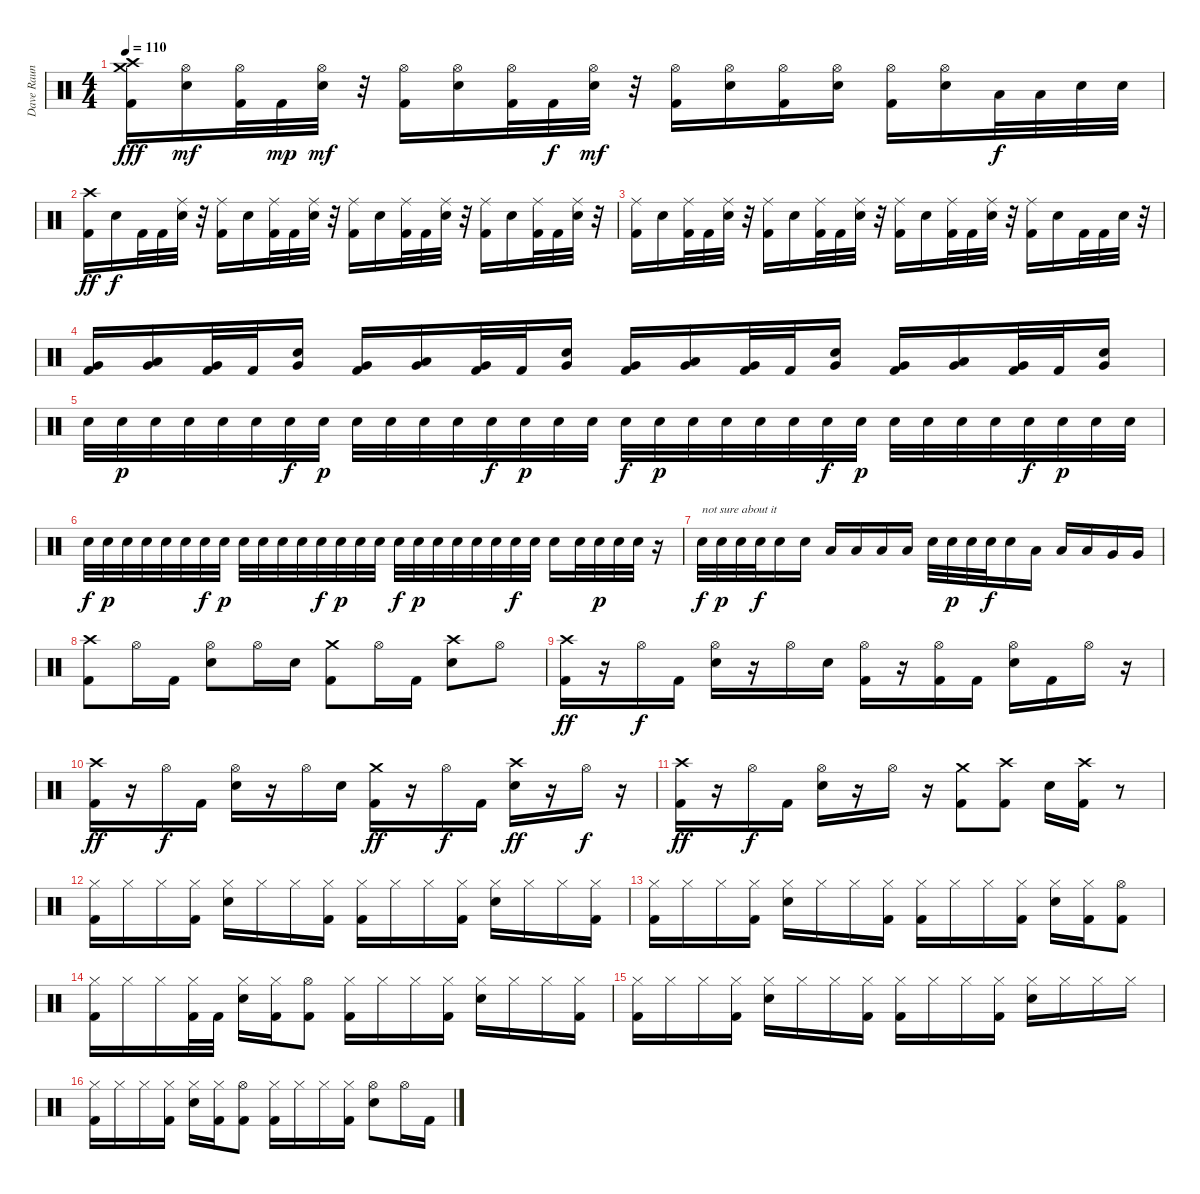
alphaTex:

\track ("Dave Raun" "Dave Raun") {instrument percussion}
\staff {score}
\articulation defaults
\ts (4 4)
\tempo 110
\clef neutral
\ks c
("Kick (hit) 2" "Crash high (hit)" "Crash medium (hit)").16{dy fff} ("Electric Snare (hit)" "Hi-Hat (open)").16{dy mf} ("Kick (hit) 2" "Hi-Hat (open)").32 "Kick (hit) 2".32{dy mp} ("Electric Snare (hit)" "Hi-Hat (open)").32{dy mf} r.32 ("Kick (hit) 2" "Hi-Hat (open)").16 ("Electric Snare (hit)" "Hi-Hat (open)").16 ("Kick (hit) 2" "Hi-Hat (open)").32 "Kick (hit) 2".32{dy f} ("Electric Snare (hit)" "Hi-Hat (open)").32{dy mf} r.32 ("Kick (hit) 2" "Hi-Hat (open)").16 ("Electric Snare (hit)" "Hi-Hat (open)").16 ("Kick (hit) 2" "Hi-Hat (open)").16 ("Electric Snare (hit)" "Hi-Hat (open)").16 ("Kick (hit) 2" "Hi-Hat (open)").16 ("Electric Snare (hit)" "Hi-Hat (open)").16 "Low Tom (hit)".32{dy f} "Low Tom (hit)".32 "Electric Snare (hit)".32 "Electric Snare (hit)".32 |
("Kick (hit) 2" "Crash high (hit)").16{dy ff} "Electric Snare (hit)".16{dy f} "Kick (hit) 2".32 "Kick (hit) 2".32 ("Electric Snare (hit)" "Ride (middle)").32 r.32 ("Kick (hit) 2" "Ride (middle)").16 "Electric Snare (hit)".16 ("Kick (hit) 2" "Ride (middle)").32 "Kick (hit) 2".32 ("Electric Snare (hit)" "Ride (middle)").32 r.32 ("Kick (hit) 2" "Ride (middle)").16 "Electric Snare (hit)".16 ("Kick (hit) 2" "Ride (middle)").32 "Kick (hit) 2".32 ("Electric Snare (hit)" "Ride (middle)").32 r.32 ("Kick (hit) 2" "Ride (middle)").16 "Electric Snare (hit)".16 ("Kick (hit) 2" "Ride (middle)").32 "Kick (hit) 2".32 ("Electric Snare (hit)" "Ride (middle)").32 r.32 |
("Kick (hit) 2" "Ride (middle)").16 "Electric Snare (hit)".16 ("Kick (hit) 2" "Ride (middle)").32 "Kick (hit) 2".32 ("Electric Snare (hit)" "Ride (middle)").32 r.32 ("Kick (hit) 2" "Ride (middle)").16 "Electric Snare (hit)".16 ("Kick (hit) 2" "Ride (middle)").32 "Kick (hit) 2".32 ("Electric Snare (hit)" "Ride (middle)").32 r.32 ("Kick (hit) 2" "Ride (middle)").16 "Electric Snare (hit)".16 ("Kick (hit) 2" "Ride (middle)").32 "Kick (hit) 2".32 ("Electric Snare (hit)" "Ride (middle)").32 r.32 ("Kick (hit) 2" "Ride (middle)").16 "Electric Snare (hit)".16 "Kick (hit) 2".32 "Kick (hit) 2".32 "Electric Snare (hit)".32 r.32 |
("Very Low Tom (hit)" "Kick (hit) 2").16 ("Very Low Tom (hit)" "Low Tom (hit)").16 ("Very Low Tom (hit)" "Kick (hit) 2").32 "Kick (hit) 2".32 ("Very Low Tom (hit)" "Electric Snare (hit)").16 ("Very Low Tom (hit)" "Kick (hit) 2").16 ("Very Low Tom (hit)" "Low Tom (hit)").16 ("Very Low Tom (hit)" "Kick (hit) 2").32 "Kick (hit) 2".32 ("Very Low Tom (hit)" "Electric Snare (hit)").16 ("Very Low Tom (hit)" "Kick (hit) 2").16 ("Very Low Tom (hit)" "Low Tom (hit)").16 ("Very Low Tom (hit)" "Kick (hit) 2").32 "Kick (hit) 2".32 ("Very Low Tom (hit)" "Electric Snare (hit)").16 ("Very Low Tom (hit)" "Kick (hit) 2").16 ("Very Low Tom (hit)" "Low Tom (hit)").16 ("Very Low Tom (hit)" "Kick (hit) 2").32 "Kick (hit) 2".32 ("Very Low Tom (hit)" "Electric Snare (hit)").16 |
"Electric Snare (hit)".32 "Electric Snare (hit)".32{dy p} "Electric Snare (hit)".32 "Electric Snare (hit)".32 "Electric Snare (hit)".32 "Electric Snare (hit)".32 "Electric Snare (hit)".32{dy f} "Electric Snare (hit)".32{dy p} "Electric Snare (hit)".32 "Electric Snare (hit)".32 "Electric Snare (hit)".32 "Electric Snare (hit)".32 "Electric Snare (hit)".32{dy f} "Electric Snare (hit)".32{dy p} "Electric Snare (hit)".32 "Electric Snare (hit)".32 "Electric Snare (hit)".32{dy f} "Electric Snare (hit)".32{dy p} "Electric Snare (hit)".32 "Electric Snare (hit)".32 "Electric Snare (hit)".32 "Electric Snare (hit)".32 "Electric Snare (hit)".32{dy f} "Electric Snare (hit)".32{dy p} "Electric Snare (hit)".32 "Electric Snare (hit)".32 "Electric Snare (hit)".32 "Electric Snare (hit)".32 "Electric Snare (hit)".32{dy f} "Electric Snare (hit)".32{dy p} "Electric Snare (hit)".32 "Electric Snare (hit)".32 |
"Electric Snare (hit)".32{dy f} "Electric Snare (hit)".32{dy p} "Electric Snare (hit)".32 "Electric Snare (hit)".32 "Electric Snare (hit)".32 "Electric Snare (hit)".32 "Electric Snare (hit)".32{dy f} "Electric Snare (hit)".32{dy p} "Electric Snare (hit)".32 "Electric Snare (hit)".32 "Electric Snare (hit)".32 "Electric Snare (hit)".32 "Electric Snare (hit)".32{dy f} "Electric Snare (hit)".32{dy p} "Electric Snare (hit)".32 "Electric Snare (hit)".32 "Electric Snare (hit)".32{dy f} "Electric Snare (hit)".32{dy p} "Electric Snare (hit)".32 "Electric Snare (hit)".32 "Electric Snare (hit)".32 "Electric Snare (hit)".32 "Electric Snare (hit)".32{dy f} "Electric Snare (hit)".32 "Electric Snare (hit)".16 "Electric Snare (hit)".32 "Electric Snare (hit)".32{dy p} "Electric Snare (hit)".32 "Electric Snare (hit)".32 r.16 |
"Electric Snare (hit)".32{txt "not sure about it" dy f} "Electric Snare (hit)".32{dy p} "Electric Snare (hit)".32 "Electric Snare (hit)".32{dy f} "Electric Snare (hit)".16 "Electric Snare (hit)".16 "Low Tom (hit)".16 "Low Tom (hit)".16 "Low Tom (hit)".16 "Low Tom (hit)".16 "Electric Snare (hit)".32 "Electric Snare (hit)".32{dy p} "Electric Snare (hit)".32 "Electric Snare (hit)".32{dy f} "Electric Snare (hit)".16 "Low Tom (hit)".16 "Low Tom (hit)".16 "Low Tom (hit)".16 "Very Low Tom (hit)".16 "Very Low Tom (hit)".16 |
("Crash high (hit)" "Kick (hit) 2").8 "Hi-Hat (open)".16 "Kick (hit) 2".16 ("Hi-Hat (open)" "Electric Snare (hit)").8 "Hi-Hat (open)".16 "Electric Snare (hit)".16 ("Crash medium (hit)" "Kick (hit) 2").8 "Hi-Hat (open)".16 "Kick (hit) 2".16 ("Crash high (hit)" "Electric Snare (hit)").8 "Hi-Hat (open)".8 |
("Crash high (hit)" "Kick (hit) 2").16{dy ff} r.16 "Hi-Hat (open)".16{dy f} "Kick (hit) 2".16 ("Hi-Hat (open)" "Electric Snare (hit)").16 r.16 "Hi-Hat (open)".16 "Electric Snare (hit)".16 ("Hi-Hat (open)" "Kick (hit) 2").16 r.16 ("Hi-Hat (open)" "Kick (hit) 2").16 "Kick (hit) 2".16 ("Hi-Hat (open)" "Electric Snare (hit)").16 "Kick (hit) 2".16 "Hi-Hat (open)".16 r.16 |
("Crash high (hit)" "Kick (hit) 2").16{dy ff} r.16 "Hi-Hat (open)".16{dy f} "Kick (hit) 2".16 ("Hi-Hat (open)" "Electric Snare (hit)").16 r.16 "Hi-Hat (open)".16 "Electric Snare (hit)".16 ("Crash medium (hit)" "Kick (hit) 2").16{dy ff} r.16 "Hi-Hat (open)".16{dy f} "Kick (hit) 2".16 ("Crash high (hit)" "Electric Snare (hit)").16{dy ff} r.16 "Hi-Hat (open)".16{dy f} r.16 |
("Crash high (hit)" "Kick (hit) 2").16{dy ff} r.16 "Hi-Hat (open)".16{dy f} "Kick (hit) 2".16 ("Hi-Hat (open)" "Electric Snare (hit)").16 r.16 "Hi-Hat (open)".16 r.16 ("Crash medium (hit)" "Kick (hit) 2").8 ("Crash high (hit)" "Kick (hit) 2").8 "Electric Snare (hit)".16 ("Crash high (hit)" "Kick (hit) 2").16 r.8 |
("Hi-Hat (closed)" "Kick (hit) 2").16 "Hi-Hat (closed)".16 "Hi-Hat (closed)".16 ("Hi-Hat (closed)" "Kick (hit) 2").16 ("Hi-Hat (closed)" "Electric Snare (hit)").16 "Hi-Hat (closed)".16 "Hi-Hat (closed)".16 ("Hi-Hat (closed)" "Kick (hit) 2").16 ("Hi-Hat (closed)" "Kick (hit) 2").16 "Hi-Hat (closed)".16 "Hi-Hat (closed)".16 ("Hi-Hat (closed)" "Kick (hit) 2").16 ("Hi-Hat (closed)" "Electric Snare (hit)").16 "Hi-Hat (closed)".16 "Hi-Hat (closed)".16 ("Hi-Hat (closed)" "Kick (hit) 2").16 |
("Hi-Hat (closed)" "Kick (hit) 2").16 "Hi-Hat (closed)".16 "Hi-Hat (closed)".16 ("Hi-Hat (closed)" "Kick (hit) 2").16 ("Hi-Hat (closed)" "Electric Snare (hit)").16 "Hi-Hat (closed)".16 "Hi-Hat (closed)".16 ("Hi-Hat (closed)" "Kick (hit) 2").16 ("Hi-Hat (closed)" "Kick (hit) 2").16 "Hi-Hat (closed)".16 "Hi-Hat (closed)".16 ("Hi-Hat (closed)" "Kick (hit) 2").16 ("Hi-Hat (closed)" "Electric Snare (hit)").16 ("Hi-Hat (closed)" "Kick (hit) 2").16 ("Hi-Hat (open)" "Kick (hit) 2").8 |
("Hi-Hat (closed)" "Kick (hit) 2").16 "Hi-Hat (closed)".16 "Hi-Hat (closed)".16 ("Hi-Hat (closed)" "Kick (hit) 2").32 "Kick (hit) 2".32 ("Hi-Hat (closed)" "Electric Snare (hit)").16 ("Hi-Hat (closed)" "Kick (hit) 2").16 ("Hi-Hat (open)" "Kick (hit) 2").8 ("Hi-Hat (closed)" "Kick (hit) 2").16 "Hi-Hat (closed)".16 "Hi-Hat (closed)".16 ("Hi-Hat (closed)" "Kick (hit) 2").16 ("Hi-Hat (closed)" "Electric Snare (hit)").16 "Hi-Hat (closed)".16 "Hi-Hat (closed)".16 ("Hi-Hat (closed)" "Kick (hit) 2").16 |
("Hi-Hat (closed)" "Kick (hit) 2").16 "Hi-Hat (closed)".16 "Hi-Hat (closed)".16 ("Hi-Hat (closed)" "Kick (hit) 2").16 ("Hi-Hat (closed)" "Electric Snare (hit)").16 "Hi-Hat (closed)".16 "Hi-Hat (closed)".16 ("Hi-Hat (closed)" "Kick (hit) 2").16 ("Hi-Hat (closed)" "Kick (hit) 2").16 "Hi-Hat (closed)".16 "Hi-Hat (closed)".16 ("Hi-Hat (closed)" "Kick (hit) 2").16 ("Hi-Hat (closed)" "Electric Snare (hit)").16 "Hi-Hat (closed)".16 "Hi-Hat (closed)".16 "Hi-Hat (closed)".16 |
("Hi-Hat (closed)" "Kick (hit) 2").16 "Hi-Hat (closed)".16 "Hi-Hat (closed)".16 ("Hi-Hat (closed)" "Kick (hit) 2").16 ("Hi-Hat (closed)" "Electric Snare (hit)").16 ("Hi-Hat (closed)" "Kick (hit) 2").16 ("Hi-Hat (open)" "Kick (hit) 2").8 ("Hi-Hat (closed)" "Kick (hit) 2").16 "Hi-Hat (closed)".16 "Hi-Hat (closed)".16 ("Hi-Hat (closed)" "Kick (hit) 2").16 ("Hi-Hat (open)" "Electric Snare (hit)").8 "Hi-Hat (open)".16 "Kick (hit) 2".16
